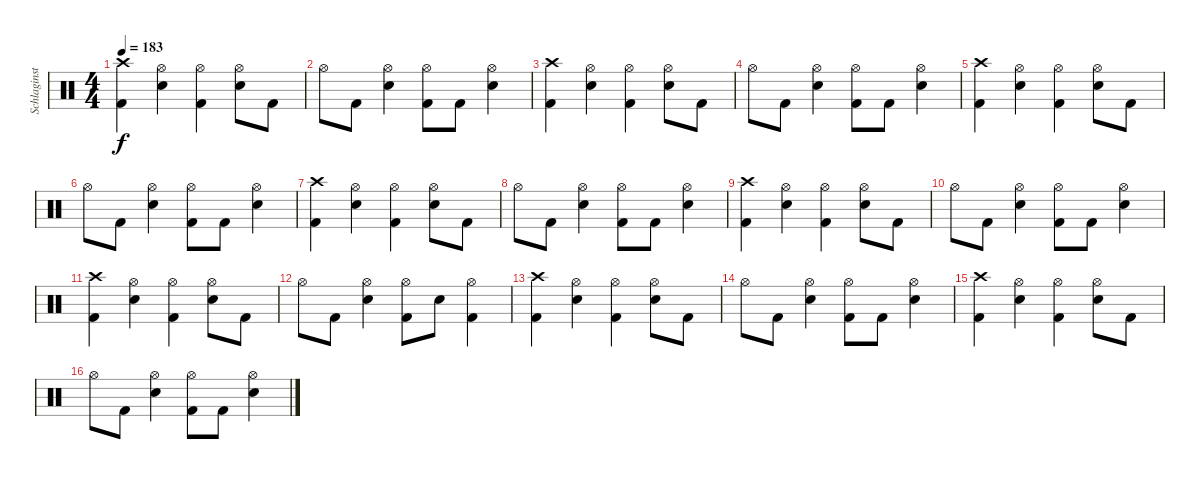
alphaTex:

\track ("Schlaginstrumente - Auswahl" "Schlaginst") {instrument percussion}
\staff {score}
\articulation defaults
\ts (4 4)
\tempo 183
\clef neutral
\ks c
("Crash high (hit)" "Kick (hit) 2").4{dy f} ("Hi-Hat (open)" "Snare (hit) 2").4 ("Hi-Hat (open)" "Kick (hit) 2").4 ("Hi-Hat (open)" "Snare (hit) 2").8 "Kick (hit) 2".8 |
"Hi-Hat (open)".8 "Kick (hit) 2".8 ("Hi-Hat (open)" "Snare (hit) 2").4 ("Hi-Hat (open)" "Kick (hit) 2").8 "Kick (hit) 2".8 ("Hi-Hat (open)" "Snare (hit) 2").4 |
("Crash high (hit)" "Kick (hit) 2").4 ("Hi-Hat (open)" "Snare (hit) 2").4 ("Hi-Hat (open)" "Kick (hit) 2").4 ("Hi-Hat (open)" "Snare (hit) 2").8 "Kick (hit) 2".8 |
"Hi-Hat (open)".8 "Kick (hit) 2".8 ("Hi-Hat (open)" "Snare (hit) 2").4 ("Hi-Hat (open)" "Kick (hit) 2").8 "Kick (hit) 2".8 ("Hi-Hat (open)" "Snare (hit) 2").4 |
("Crash high (hit)" "Kick (hit) 2").4 ("Hi-Hat (open)" "Snare (hit) 2").4 ("Hi-Hat (open)" "Kick (hit) 2").4 ("Hi-Hat (open)" "Snare (hit) 2").8 "Kick (hit) 2".8 |
"Hi-Hat (open)".8 "Kick (hit) 2".8 ("Hi-Hat (open)" "Snare (hit) 2").4 ("Hi-Hat (open)" "Kick (hit) 2").8 "Kick (hit) 2".8 ("Hi-Hat (open)" "Snare (hit) 2").4 |
("Crash high (hit)" "Kick (hit) 2").4 ("Hi-Hat (open)" "Snare (hit) 2").4 ("Hi-Hat (open)" "Kick (hit) 2").4 ("Hi-Hat (open)" "Snare (hit) 2").8 "Kick (hit) 2".8 |
"Hi-Hat (open)".8 "Kick (hit) 2".8 ("Hi-Hat (open)" "Snare (hit) 2").4 ("Hi-Hat (open)" "Kick (hit) 2").8 "Kick (hit) 2".8 ("Hi-Hat (open)" "Snare (hit) 2").4 |
("Crash high (hit)" "Kick (hit) 2").4 ("Hi-Hat (open)" "Snare (hit) 2").4 ("Hi-Hat (open)" "Kick (hit) 2").4 ("Hi-Hat (open)" "Snare (hit) 2").8 "Kick (hit) 2".8 |
"Hi-Hat (open)".8 "Kick (hit) 2".8 ("Hi-Hat (open)" "Snare (hit) 2").4 ("Hi-Hat (open)" "Kick (hit) 2").8 "Kick (hit) 2".8 ("Hi-Hat (open)" "Snare (hit) 2").4 |
("Crash high (hit)" "Kick (hit) 2").4 ("Hi-Hat (open)" "Snare (hit) 2").4 ("Hi-Hat (open)" "Kick (hit) 2").4 ("Hi-Hat (open)" "Snare (hit) 2").8 "Kick (hit) 2".8 |
"Hi-Hat (open)".8 "Kick (hit) 2".8 ("Hi-Hat (open)" "Snare (hit) 2").4 ("Hi-Hat (open)" "Kick (hit) 2").8 "Snare (hit) 2".8 ("Hi-Hat (open)" "Kick (hit) 2").4 |
("Crash high (hit)" "Kick (hit) 2").4 ("Hi-Hat (open)" "Snare (hit) 2").4 ("Hi-Hat (open)" "Kick (hit) 2").4 ("Hi-Hat (open)" "Snare (hit) 2").8 "Kick (hit) 2".8 |
"Hi-Hat (open)".8 "Kick (hit) 2".8 ("Hi-Hat (open)" "Snare (hit) 2").4 ("Hi-Hat (open)" "Kick (hit) 2").8 "Kick (hit) 2".8 ("Hi-Hat (open)" "Snare (hit) 2").4 |
("Crash high (hit)" "Kick (hit) 2").4 ("Hi-Hat (open)" "Snare (hit) 2").4 ("Hi-Hat (open)" "Kick (hit) 2").4 ("Hi-Hat (open)" "Snare (hit) 2").8 "Kick (hit) 2".8 |
"Hi-Hat (open)".8 "Kick (hit) 2".8 ("Hi-Hat (open)" "Snare (hit) 2").4 ("Hi-Hat (open)" "Kick (hit) 2").8 "Kick (hit) 2".8 ("Hi-Hat (open)" "Snare (hit) 2").4
